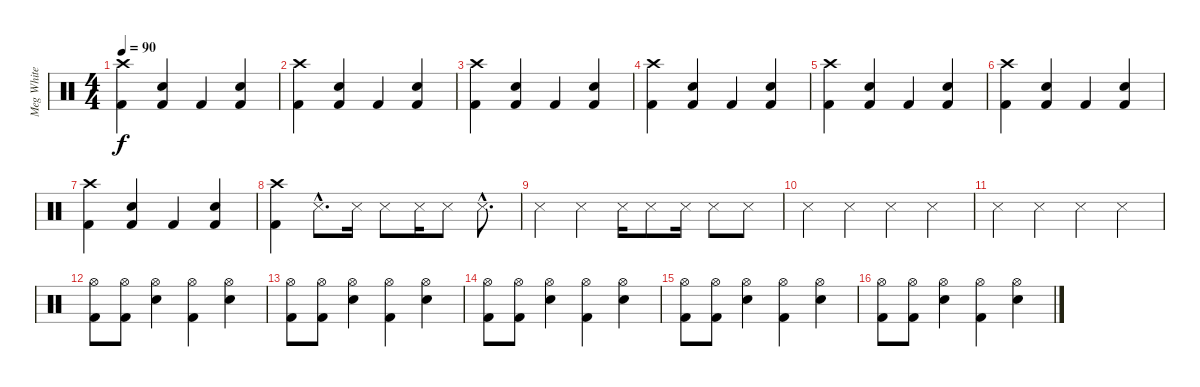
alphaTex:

\track ("Meg White" "Meg White") {instrument percussion}
\staff {score}
\articulation defaults
\ts (4 4)
\tempo 90
\clef neutral
\ks c
("Crash high (hit)" "Kick (hit) 2").4{dy f} ("Kick (hit) 2" "Electric Snare (hit)").4 "Kick (hit) 2".4 ("Kick (hit) 2" "Electric Snare (hit)").4 |
("Crash high (hit)" "Kick (hit) 2").4 ("Kick (hit) 2" "Electric Snare (hit)").4 "Kick (hit) 2".4 ("Kick (hit) 2" "Electric Snare (hit)").4 |
("Crash high (hit)" "Kick (hit) 2").4 ("Kick (hit) 2" "Electric Snare (hit)").4 "Kick (hit) 2".4 ("Kick (hit) 2" "Electric Snare (hit)").4 |
("Crash high (hit)" "Kick (hit) 2").4 ("Kick (hit) 2" "Electric Snare (hit)").4 "Kick (hit) 2".4 ("Kick (hit) 2" "Electric Snare (hit)").4 |
("Crash high (hit)" "Kick (hit) 2").4 ("Kick (hit) 2" "Electric Snare (hit)").4 "Kick (hit) 2".4 ("Kick (hit) 2" "Electric Snare (hit)").4 |
("Crash high (hit)" "Kick (hit) 2").4 ("Kick (hit) 2" "Electric Snare (hit)").4 "Kick (hit) 2".4 ("Kick (hit) 2" "Electric Snare (hit)").4 |
("Crash high (hit)" "Kick (hit) 2").4 ("Kick (hit) 2" "Electric Snare (hit)").4 "Kick (hit) 2".4 ("Kick (hit) 2" "Electric Snare (hit)").4 |
("Crash high (hit)" "Kick (hit) 2").4 "Snare (side stick) 3"{hac}.8{d} "Snare (side stick) 3".16 "Snare (side stick) 3".8 "Snare (side stick) 3".16 "Snare (side stick) 3".8 "Snare (side stick) 3"{hac}.8{d} |
"Snare (side stick) 3".4 "Snare (side stick) 3".4 "Snare (side stick) 3".16 "Snare (side stick) 3".8 "Snare (side stick) 3".16 "Snare (side stick) 3".8 "Snare (side stick) 3".8 |
"Snare (side stick) 3".4 "Snare (side stick) 3".4 "Snare (side stick) 3".4 "Snare (side stick) 3".4 |
"Snare (side stick) 3".4 "Snare (side stick) 3".4 "Snare (side stick) 3".4 "Snare (side stick) 3".4 |
("Hi-Hat (open)" "Kick (hit) 2").8 ("Hi-Hat (open)" "Kick (hit) 2").8 ("Hi-Hat (open)" "Electric Snare (hit)").4 ("Hi-Hat (open)" "Kick (hit) 2").4 ("Hi-Hat (open)" "Electric Snare (hit)").4 |
("Hi-Hat (open)" "Kick (hit) 2").8 ("Hi-Hat (open)" "Kick (hit) 2").8 ("Hi-Hat (open)" "Electric Snare (hit)").4 ("Hi-Hat (open)" "Kick (hit) 2").4 ("Hi-Hat (open)" "Electric Snare (hit)").4 |
("Hi-Hat (open)" "Kick (hit) 2").8 ("Hi-Hat (open)" "Kick (hit) 2").8 ("Hi-Hat (open)" "Electric Snare (hit)").4 ("Hi-Hat (open)" "Kick (hit) 2").4 ("Hi-Hat (open)" "Electric Snare (hit)").4 |
("Hi-Hat (open)" "Kick (hit) 2").8 ("Hi-Hat (open)" "Kick (hit) 2").8 ("Hi-Hat (open)" "Electric Snare (hit)").4 ("Hi-Hat (open)" "Kick (hit) 2").4 ("Hi-Hat (open)" "Electric Snare (hit)").4 |
("Hi-Hat (open)" "Kick (hit) 2").8 ("Hi-Hat (open)" "Kick (hit) 2").8 ("Hi-Hat (open)" "Electric Snare (hit)").4 ("Hi-Hat (open)" "Kick (hit) 2").4 ("Hi-Hat (open)" "Electric Snare (hit)").4
